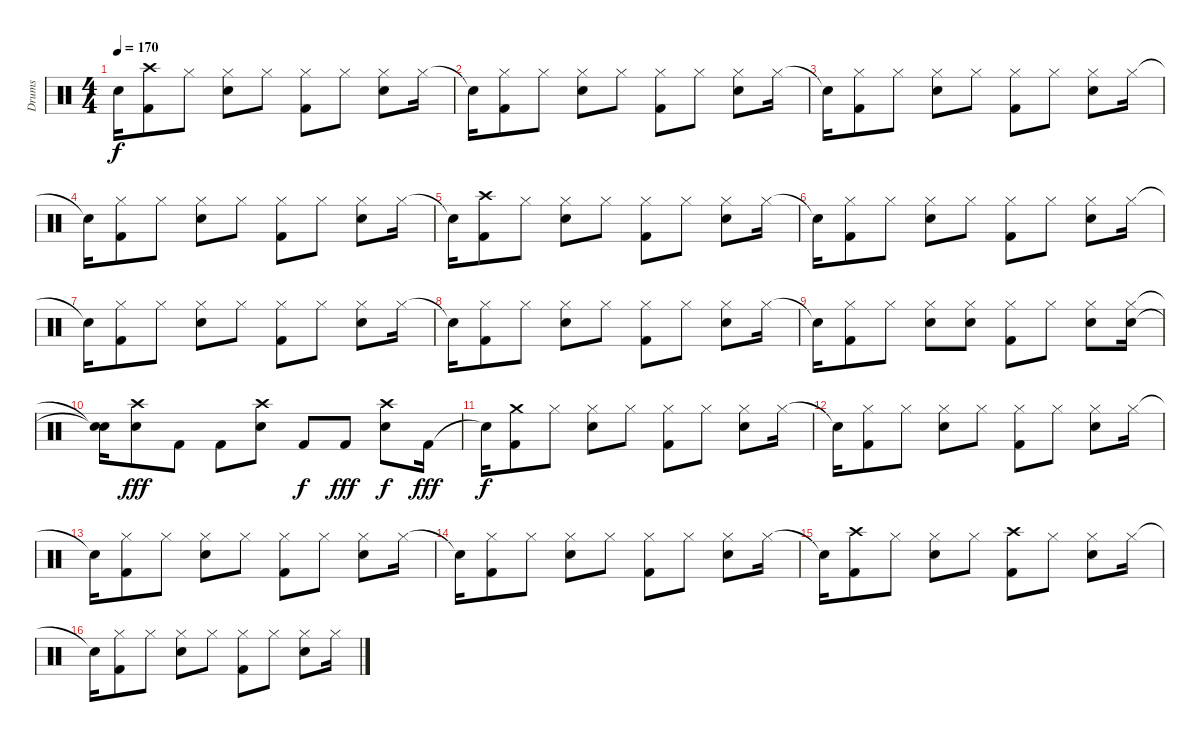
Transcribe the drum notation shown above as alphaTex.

\track ("Drums" "Drums") {instrument percussion}
\staff {score}
\articulation defaults
\ts (4 4)
\tempo 170
\clef neutral
\ks c "Snare (hit)"{t}.16{dy f}
("Kick (hit) 2" "Crash high (hit)").8 "Hi-Hat (closed)".8 ("Snare (hit) 2" "Hi-Hat (closed)").8 "Hi-Hat (closed)".8 ("Kick (hit) 2" "Hi-Hat (closed)").8 "Hi-Hat (closed)".8 ("Snare (hit) 2" "Hi-Hat (closed)").8 "Hi-Hat (closed)".16 |
"Snare (hit)"{t}.16 ("Kick (hit) 2" "Hi-Hat (closed)").8 "Hi-Hat (closed)".8 ("Snare (hit) 2" "Hi-Hat (closed)").8 "Hi-Hat (closed)".8 ("Kick (hit) 2" "Hi-Hat (closed)").8 "Hi-Hat (closed)".8 ("Snare (hit) 2" "Hi-Hat (closed)").8 "Hi-Hat (closed)".16 |
"Snare (hit)"{t}.16 ("Kick (hit) 2" "Hi-Hat (closed)").8 "Hi-Hat (closed)".8 ("Snare (hit) 2" "Hi-Hat (closed)").8 "Hi-Hat (closed)".8 ("Kick (hit) 2" "Hi-Hat (closed)").8 "Hi-Hat (closed)".8 ("Snare (hit) 2" "Hi-Hat (closed)").8 "Hi-Hat (closed)".16 |
"Snare (hit)"{t}.16 ("Kick (hit) 2" "Hi-Hat (closed)").8 "Hi-Hat (closed)".8 ("Snare (hit) 2" "Hi-Hat (closed)").8 "Hi-Hat (closed)".8 ("Kick (hit) 2" "Hi-Hat (closed)").8 "Hi-Hat (closed)".8 ("Snare (hit) 2" "Hi-Hat (closed)").8 "Hi-Hat (closed)".16 |
"Snare (hit)"{t}.16 ("Kick (hit) 2" "Crash high (hit)").8 "Hi-Hat (closed)".8 ("Snare (hit) 2" "Hi-Hat (closed)").8 "Hi-Hat (closed)".8 ("Kick (hit) 2" "Hi-Hat (closed)").8 "Hi-Hat (closed)".8 ("Snare (hit) 2" "Hi-Hat (closed)").8 "Hi-Hat (closed)".16 |
"Snare (hit)"{t}.16 ("Kick (hit) 2" "Hi-Hat (closed)").8 "Hi-Hat (closed)".8 ("Snare (hit) 2" "Hi-Hat (closed)").8 "Hi-Hat (closed)".8 ("Kick (hit) 2" "Hi-Hat (closed)").8 "Hi-Hat (closed)".8 ("Snare (hit) 2" "Hi-Hat (closed)").8 "Hi-Hat (closed)".16 |
"Snare (hit)"{t}.16 ("Kick (hit) 2" "Hi-Hat (closed)").8 "Hi-Hat (closed)".8 ("Snare (hit) 2" "Hi-Hat (closed)").8 "Hi-Hat (closed)".8 ("Kick (hit) 2" "Hi-Hat (closed)").8 "Hi-Hat (closed)".8 ("Snare (hit) 2" "Hi-Hat (closed)").8 "Hi-Hat (closed)".16 |
"Snare (hit)"{t}.16 ("Kick (hit) 2" "Hi-Hat (closed)").8 "Hi-Hat (closed)".8 ("Snare (hit) 2" "Hi-Hat (closed)").8 "Hi-Hat (closed)".8 ("Kick (hit) 2" "Hi-Hat (closed)").8 "Hi-Hat (closed)".8 ("Snare (hit) 2" "Hi-Hat (closed)").8 "Hi-Hat (closed)".16 |
"Snare (hit)"{t}.16 ("Kick (hit) 2" "Hi-Hat (closed)").8 "Hi-Hat (closed)".8 ("Snare (hit) 2" "Hi-Hat (closed)").8 ("Snare (hit) 2" "Hi-Hat (closed)").8 ("Kick (hit) 2" "Hi-Hat (closed)").8 "Hi-Hat (closed)".8 ("Snare (hit) 2" "Hi-Hat (closed)").8 ("Snare (hit) 2" "Hi-Hat (closed)").16 |
("Snare (hit)"{t} "Snare (hit)"{t}).16 ("Crash high (hit)" "Snare (hit) 2").8{dy fff} "Kick (hit) 2".8 "Kick (hit) 2".8 ("Crash high (hit)" "Snare (hit) 2").8 "Kick (hit) 2".8{dy f} "Kick (hit) 2".8{dy fff} ("Crash high (hit)" "Snare (hit) 2").8{dy f} "Kick (hit) 2".16{dy fff} |
"Snare (hit)"{t}.16{dy f} ("Crash medium (hit)" "Kick (hit) 2").8 "Hi-Hat (closed)".8 ("Snare (hit) 2" "Hi-Hat (closed)").8 "Hi-Hat (closed)".8 ("Kick (hit) 2" "Hi-Hat (closed)").8 "Hi-Hat (closed)".8 ("Snare (hit) 2" "Hi-Hat (closed)").8 "Hi-Hat (closed)".16 |
"Snare (hit)"{t}.16 ("Kick (hit) 2" "Hi-Hat (closed)").8 "Hi-Hat (closed)".8 ("Snare (hit) 2" "Hi-Hat (closed)").8 "Hi-Hat (closed)".8 ("Kick (hit) 2" "Hi-Hat (closed)").8 "Hi-Hat (closed)".8 ("Snare (hit) 2" "Hi-Hat (closed)").8 "Hi-Hat (closed)".16 |
"Snare (hit)"{t}.16 ("Kick (hit) 2" "Hi-Hat (closed)").8 "Hi-Hat (closed)".8 ("Snare (hit) 2" "Hi-Hat (closed)").8 "Hi-Hat (closed)".8 ("Kick (hit) 2" "Hi-Hat (closed)").8 "Hi-Hat (closed)".8 ("Snare (hit) 2" "Hi-Hat (closed)").8 "Hi-Hat (closed)".16 |
"Snare (hit)"{t}.16 ("Kick (hit) 2" "Hi-Hat (closed)").8 "Hi-Hat (closed)".8 ("Snare (hit) 2" "Hi-Hat (closed)").8 "Hi-Hat (closed)".8 ("Kick (hit) 2" "Hi-Hat (closed)").8 "Hi-Hat (closed)".8 ("Snare (hit) 2" "Hi-Hat (closed)").8 "Hi-Hat (closed)".16 |
"Snare (hit)"{t}.16 ("Kick (hit) 2" "Crash high (hit)").8 "Hi-Hat (closed)".8 ("Snare (hit) 2" "Hi-Hat (closed)").8 "Hi-Hat (closed)".8 ("Kick (hit) 2" "Crash high (hit)").8 "Hi-Hat (closed)".8 ("Snare (hit) 2" "Hi-Hat (closed)").8 "Hi-Hat (closed)".16 |
"Snare (hit)"{t}.16 ("Kick (hit) 2" "Hi-Hat (closed)").8 "Hi-Hat (closed)".8 ("Snare (hit) 2" "Hi-Hat (closed)").8 "Hi-Hat (closed)".8 ("Kick (hit) 2" "Hi-Hat (closed)").8 "Hi-Hat (closed)".8 ("Snare (hit) 2" "Hi-Hat (closed)").8 "Hi-Hat (closed)".16
